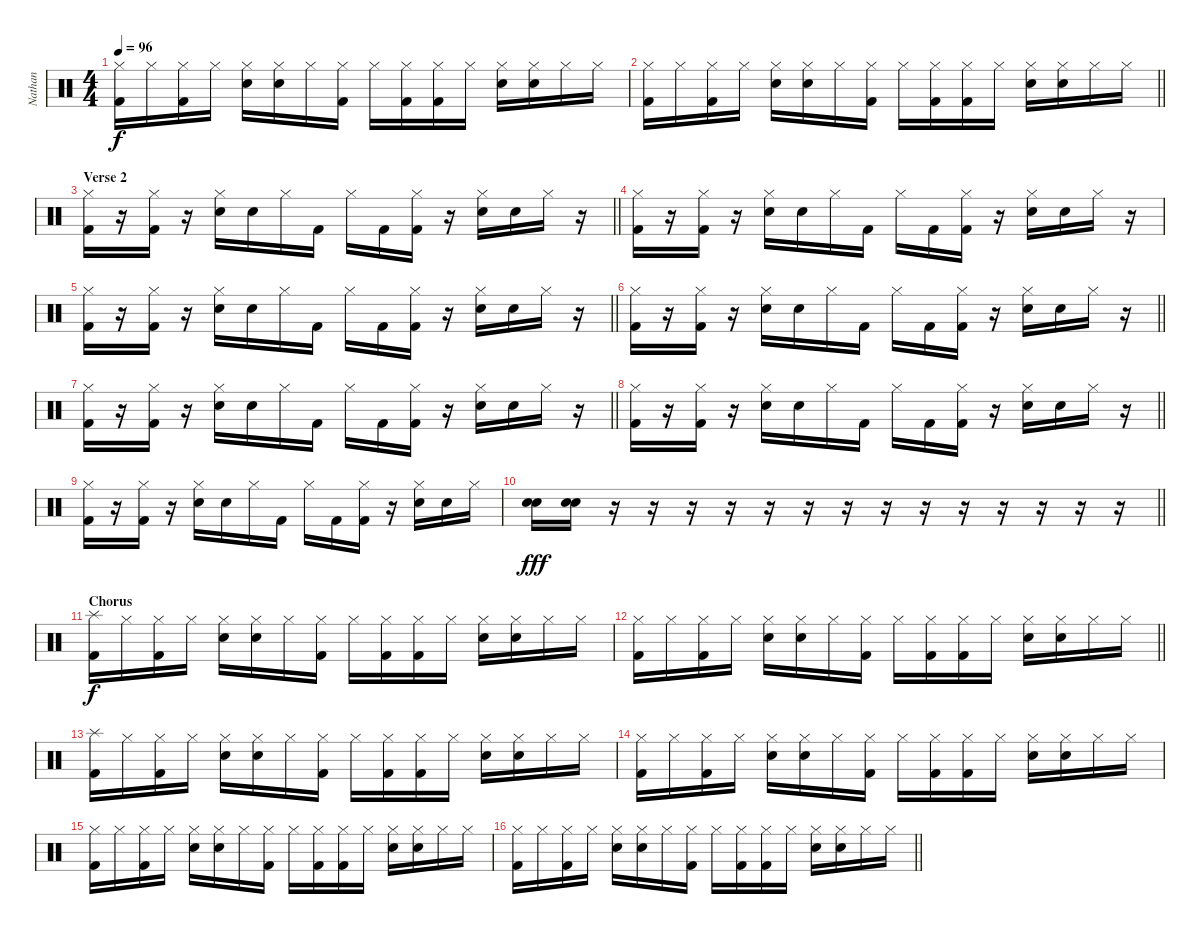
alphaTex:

\track ("Nathan" "Nathan") {instrument percussion}
\staff {score}
\articulation defaults
\ts (4 4)
\tempo 96
\clef neutral
\ks c
("Hi-Hat (closed)" "Kick (hit) 2").16{dy f} "Hi-Hat (closed)".16 ("Hi-Hat (closed)" "Kick (hit) 2").16 "Hi-Hat (closed)".16 ("Hi-Hat (closed)" "Electric Snare (hit)").16 ("Hi-Hat (closed)" "Electric Snare (hit)").16 "Hi-Hat (closed)".16 ("Hi-Hat (closed)" "Kick (hit) 2").16 "Hi-Hat (closed)".16 ("Hi-Hat (closed)" "Kick (hit) 2").16 ("Hi-Hat (closed)" "Kick (hit) 2").16 "Hi-Hat (closed)".16 ("Hi-Hat (closed)" "Electric Snare (hit)").16 ("Hi-Hat (closed)" "Electric Snare (hit)").16 "Hi-Hat (closed)".16 "Hi-Hat (closed)".16 |
\barLineRight lightlight
("Hi-Hat (closed)" "Kick (hit) 2").16 "Hi-Hat (closed)".16 ("Hi-Hat (closed)" "Kick (hit) 2").16 "Hi-Hat (closed)".16 ("Hi-Hat (closed)" "Electric Snare (hit)").16 ("Hi-Hat (closed)" "Electric Snare (hit)").16 "Hi-Hat (closed)".16 ("Hi-Hat (closed)" "Kick (hit) 2").16 "Hi-Hat (closed)".16 ("Hi-Hat (closed)" "Kick (hit) 2").16 ("Hi-Hat (closed)" "Kick (hit) 2").16 "Hi-Hat (closed)".16 ("Hi-Hat (closed)" "Electric Snare (hit)").16 ("Hi-Hat (closed)" "Electric Snare (hit)").16 "Hi-Hat (closed)".16 "Hi-Hat (closed)".16 |
\section ("" "Verse 2")
\barLineRight lightlight
("Hi-Hat (closed)" "Kick (hit) 2").16 r.16 ("Hi-Hat (closed)" "Kick (hit) 2").16 r.16 ("Hi-Hat (closed)" "Electric Snare (hit)").16 "Electric Snare (hit)".16 "Hi-Hat (closed)".16 "Kick (hit) 2".16 "Hi-Hat (closed)".16 "Kick (hit) 2".16 ("Hi-Hat (closed)" "Kick (hit) 2").16 r.16 ("Hi-Hat (closed)" "Electric Snare (hit)").16 "Electric Snare (hit)".16 "Hi-Hat (closed)".16 r.16 |
("Hi-Hat (closed)" "Kick (hit) 2").16 r.16 ("Hi-Hat (closed)" "Kick (hit) 2").16 r.16 ("Hi-Hat (closed)" "Electric Snare (hit)").16 "Electric Snare (hit)".16 "Hi-Hat (closed)".16 "Kick (hit) 2".16 "Hi-Hat (closed)".16 "Kick (hit) 2".16 ("Hi-Hat (closed)" "Kick (hit) 2").16 r.16 ("Hi-Hat (closed)" "Electric Snare (hit)").16 "Electric Snare (hit)".16 "Hi-Hat (closed)".16 r.16 |
\barLineRight lightlight
("Hi-Hat (closed)" "Kick (hit) 2").16 r.16 ("Hi-Hat (closed)" "Kick (hit) 2").16 r.16 ("Hi-Hat (closed)" "Electric Snare (hit)").16 "Electric Snare (hit)".16 "Hi-Hat (closed)".16 "Kick (hit) 2".16 "Hi-Hat (closed)".16 "Kick (hit) 2".16 ("Hi-Hat (closed)" "Kick (hit) 2").16 r.16 ("Hi-Hat (closed)" "Electric Snare (hit)").16 "Electric Snare (hit)".16 "Hi-Hat (closed)".16 r.16 |
\barLineRight lightlight
("Hi-Hat (closed)" "Kick (hit) 2").16 r.16 ("Hi-Hat (closed)" "Kick (hit) 2").16 r.16 ("Hi-Hat (closed)" "Electric Snare (hit)").16 "Electric Snare (hit)".16 "Hi-Hat (closed)".16 "Kick (hit) 2".16 "Hi-Hat (closed)".16 "Kick (hit) 2".16 ("Hi-Hat (closed)" "Kick (hit) 2").16 r.16 ("Hi-Hat (closed)" "Electric Snare (hit)").16 "Electric Snare (hit)".16 "Hi-Hat (closed)".16 r.16 |
\barLineRight lightlight
("Hi-Hat (closed)" "Kick (hit) 2").16 r.16 ("Hi-Hat (closed)" "Kick (hit) 2").16 r.16 ("Hi-Hat (closed)" "Electric Snare (hit)").16 "Electric Snare (hit)".16 "Hi-Hat (closed)".16 "Kick (hit) 2".16 "Hi-Hat (closed)".16 "Kick (hit) 2".16 ("Hi-Hat (closed)" "Kick (hit) 2").16 r.16 ("Hi-Hat (closed)" "Electric Snare (hit)").16 "Electric Snare (hit)".16 "Hi-Hat (closed)".16 r.16 |
\barLineRight lightlight
("Hi-Hat (closed)" "Kick (hit) 2").16 r.16 ("Hi-Hat (closed)" "Kick (hit) 2").16 r.16 ("Hi-Hat (closed)" "Electric Snare (hit)").16 "Electric Snare (hit)".16 "Hi-Hat (closed)".16 "Kick (hit) 2".16 "Hi-Hat (closed)".16 "Kick (hit) 2".16 ("Hi-Hat (closed)" "Kick (hit) 2").16 r.16 ("Hi-Hat (closed)" "Electric Snare (hit)").16 "Electric Snare (hit)".16 "Hi-Hat (closed)".16 r.16 |
("Hi-Hat (closed)" "Kick (hit) 2").16 r.16 ("Hi-Hat (closed)" "Kick (hit) 2").16 r.16 ("Hi-Hat (closed)" "Electric Snare (hit)").16 "Electric Snare (hit)".16 "Hi-Hat (closed)".16 "Kick (hit) 2".16 "Hi-Hat (closed)".16 "Kick (hit) 2".16 ("Hi-Hat (closed)" "Kick (hit) 2").16 r.16 ("Hi-Hat (closed)" "Electric Snare (hit)").16 "Electric Snare (hit)".16 "Hi-Hat (closed)".16 |
\barLineRight lightlight
("Electric Snare (hit)" "Snare (hit) 2").16{dy fff} ("Electric Snare (hit)" "Snare (hit) 2").16 r.16 r.16 r.16 r.16 r.16 r.16 r.16 r.16 r.16 r.16 r.16 r.16 r.16 r.16 |
\section ("" "Chorus")
("Splash (hit)" "Kick (hit) 2").16{dy f} "Hi-Hat (closed)".16 ("Hi-Hat (closed)" "Kick (hit) 2").16 "Hi-Hat (closed)".16 ("Hi-Hat (closed)" "Electric Snare (hit)").16 ("Hi-Hat (closed)" "Electric Snare (hit)").16 "Hi-Hat (closed)".16 ("Hi-Hat (closed)" "Kick (hit) 2").16 "Hi-Hat (closed)".16 ("Hi-Hat (closed)" "Kick (hit) 2").16 ("Hi-Hat (closed)" "Kick (hit) 2").16 "Hi-Hat (closed)".16 ("Hi-Hat (closed)" "Electric Snare (hit)").16 ("Hi-Hat (closed)" "Electric Snare (hit)").16 "Hi-Hat (closed)".16 "Hi-Hat (closed)".16 |
\barLineRight lightlight
("Hi-Hat (closed)" "Kick (hit) 2").16 "Hi-Hat (closed)".16 ("Hi-Hat (closed)" "Kick (hit) 2").16 "Hi-Hat (closed)".16 ("Hi-Hat (closed)" "Electric Snare (hit)").16 ("Hi-Hat (closed)" "Electric Snare (hit)").16 "Hi-Hat (closed)".16 ("Hi-Hat (closed)" "Kick (hit) 2").16 "Hi-Hat (closed)".16 ("Hi-Hat (closed)" "Kick (hit) 2").16 ("Hi-Hat (closed)" "Kick (hit) 2").16 "Hi-Hat (closed)".16 ("Hi-Hat (closed)" "Electric Snare (hit)").16 ("Hi-Hat (closed)" "Electric Snare (hit)").16 "Hi-Hat (closed)".16 "Hi-Hat (closed)".16 |
("Splash (hit)" "Kick (hit) 2").16 "Hi-Hat (closed)".16 ("Hi-Hat (closed)" "Kick (hit) 2").16 "Hi-Hat (closed)".16 ("Hi-Hat (closed)" "Electric Snare (hit)").16 ("Hi-Hat (closed)" "Electric Snare (hit)").16 "Hi-Hat (closed)".16 ("Hi-Hat (closed)" "Kick (hit) 2").16 "Hi-Hat (closed)".16 ("Hi-Hat (closed)" "Kick (hit) 2").16 ("Hi-Hat (closed)" "Kick (hit) 2").16 "Hi-Hat (closed)".16 ("Hi-Hat (closed)" "Electric Snare (hit)").16 ("Hi-Hat (closed)" "Electric Snare (hit)").16 "Hi-Hat (closed)".16 "Hi-Hat (closed)".16 |
("Hi-Hat (closed)" "Kick (hit) 2").16 "Hi-Hat (closed)".16 ("Hi-Hat (closed)" "Kick (hit) 2").16 "Hi-Hat (closed)".16 ("Hi-Hat (closed)" "Electric Snare (hit)").16 ("Hi-Hat (closed)" "Electric Snare (hit)").16 "Hi-Hat (closed)".16 ("Hi-Hat (closed)" "Kick (hit) 2").16 "Hi-Hat (closed)".16 ("Hi-Hat (closed)" "Kick (hit) 2").16 ("Hi-Hat (closed)" "Kick (hit) 2").16 "Hi-Hat (closed)".16 ("Hi-Hat (closed)" "Electric Snare (hit)").16 ("Hi-Hat (closed)" "Electric Snare (hit)").16 "Hi-Hat (closed)".16 "Hi-Hat (closed)".16 |
("Hi-Hat (closed)" "Kick (hit) 2").16 "Hi-Hat (closed)".16 ("Hi-Hat (closed)" "Kick (hit) 2").16 "Hi-Hat (closed)".16 ("Hi-Hat (closed)" "Electric Snare (hit)").16 ("Hi-Hat (closed)" "Electric Snare (hit)").16 "Hi-Hat (closed)".16 ("Hi-Hat (closed)" "Kick (hit) 2").16 "Hi-Hat (closed)".16 ("Hi-Hat (closed)" "Kick (hit) 2").16 ("Hi-Hat (closed)" "Kick (hit) 2").16 "Hi-Hat (closed)".16 ("Hi-Hat (closed)" "Electric Snare (hit)").16 ("Hi-Hat (closed)" "Electric Snare (hit)").16 "Hi-Hat (closed)".16 "Hi-Hat (closed)".16 |
\barLineRight lightlight
("Hi-Hat (closed)" "Kick (hit) 2").16 "Hi-Hat (closed)".16 ("Hi-Hat (closed)" "Kick (hit) 2").16 "Hi-Hat (closed)".16 ("Hi-Hat (closed)" "Electric Snare (hit)").16 ("Hi-Hat (closed)" "Electric Snare (hit)").16 "Hi-Hat (closed)".16 ("Hi-Hat (closed)" "Kick (hit) 2").16 "Hi-Hat (closed)".16 ("Hi-Hat (closed)" "Kick (hit) 2").16 ("Hi-Hat (closed)" "Kick (hit) 2").16 "Hi-Hat (closed)".16 ("Hi-Hat (closed)" "Electric Snare (hit)").16 ("Hi-Hat (closed)" "Electric Snare (hit)").16 "Hi-Hat (closed)".16 "Hi-Hat (closed)".16
